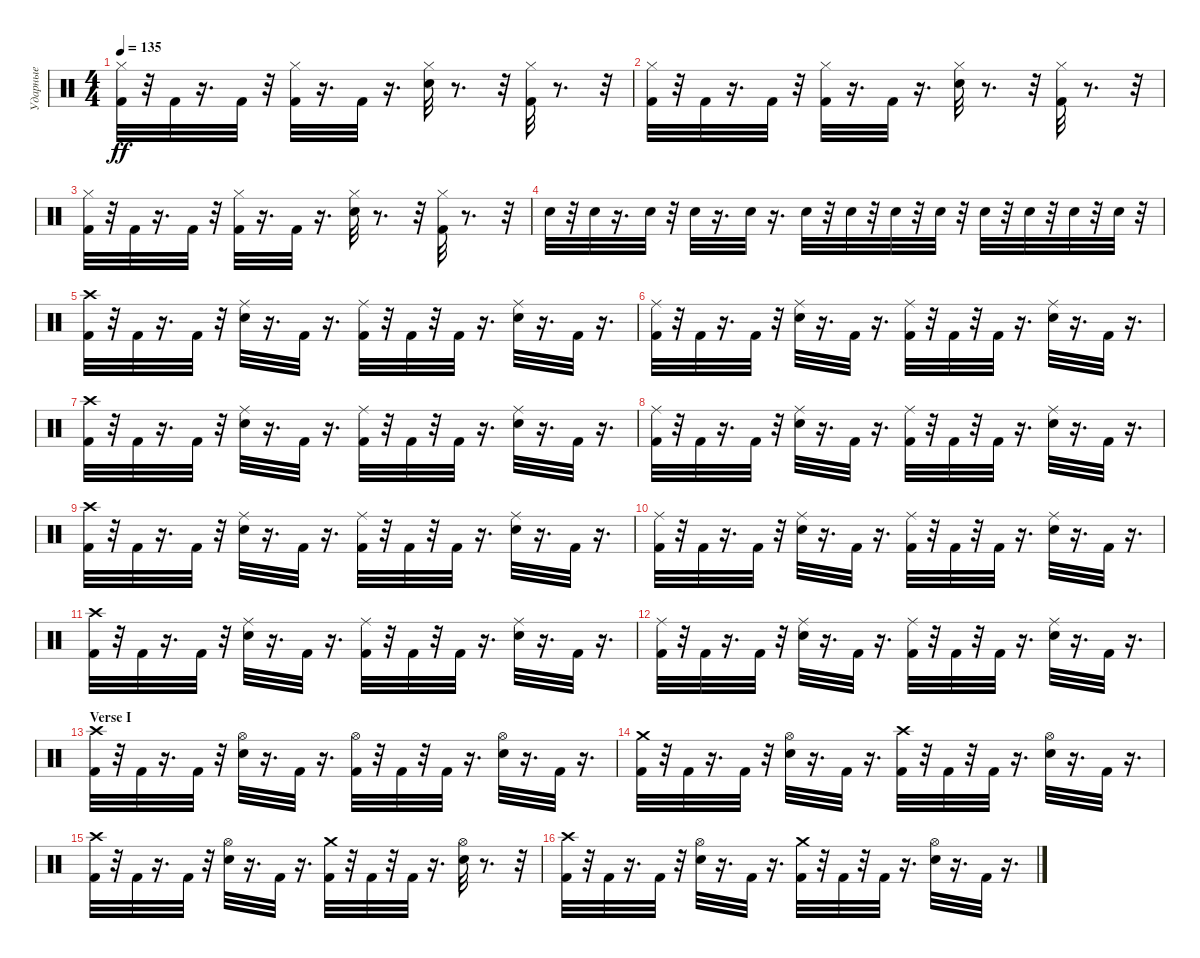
\track ("Ударные" "Ударные") {instrument percussion}
\staff {score}
\articulation defaults
\ts (4 4)
\tempo 135
\clef neutral
\ks c
("Hi-Hat (closed)" "Kick (hit) 2").32{dy ff} r.32 "Kick (hit) 2".32 r.16{d} "Kick (hit) 2".32 r.32 ("Hi-Hat (closed)" "Kick (hit) 2").32 r.16{d} "Kick (hit) 2".32 r.16{d} ("Hi-Hat (closed)" "Electric Snare (hit)").32 r.8{d} r.32 ("Hi-Hat (closed)" "Kick (hit) 2").32 r.8{d} r.32 |
("Hi-Hat (closed)" "Kick (hit) 2").32 r.32 "Kick (hit) 2".32 r.16{d} "Kick (hit) 2".32 r.32 ("Hi-Hat (closed)" "Kick (hit) 2").32 r.16{d} "Kick (hit) 2".32 r.16{d} ("Hi-Hat (closed)" "Electric Snare (hit)").32 r.8{d} r.32 ("Hi-Hat (closed)" "Kick (hit) 2").32 r.8{d} r.32 |
("Hi-Hat (closed)" "Kick (hit) 2").32 r.32 "Kick (hit) 2".32 r.16{d} "Kick (hit) 2".32 r.32 ("Hi-Hat (closed)" "Kick (hit) 2").32 r.16{d} "Kick (hit) 2".32 r.16{d} ("Hi-Hat (closed)" "Electric Snare (hit)").32 r.8{d} r.32 ("Hi-Hat (closed)" "Kick (hit) 2").32 r.8{d} r.32 |
"Electric Snare (hit)".32 r.32 "Electric Snare (hit)".32 r.16{d} "Electric Snare (hit)".32 r.32 "Electric Snare (hit)".32 r.16{d} "Electric Snare (hit)".32 r.16{d} "Electric Snare (hit)".32 r.32 "Electric Snare (hit)".32 r.32 "Electric Snare (hit)".32 r.32 "Electric Snare (hit)".32 r.32 "Electric Snare (hit)".32 r.32 "Electric Snare (hit)".32 r.32 "Electric Snare (hit)".32 r.32 "Electric Snare (hit)".32 r.32 |
("Crash high (hit)" "Kick (hit) 2").32 r.32 "Kick (hit) 2".32 r.16{d} "Kick (hit) 2".32 r.32 ("Ride (middle)" "Electric Snare (hit)").32 r.16{d} "Kick (hit) 2".32 r.16{d} ("Ride (middle)" "Kick (hit) 2").32 r.32 "Kick (hit) 2".32 r.32 "Kick (hit) 2".32 r.16{d} ("Ride (middle)" "Electric Snare (hit)").32 r.16{d} "Kick (hit) 2".32 r.16{d} |
("Ride (middle)" "Kick (hit) 2").32 r.32 "Kick (hit) 2".32 r.16{d} "Kick (hit) 2".32 r.32 ("Ride (middle)" "Electric Snare (hit)").32 r.16{d} "Kick (hit) 2".32 r.16{d} ("Ride (middle)" "Kick (hit) 2").32 r.32 "Kick (hit) 2".32 r.32 "Kick (hit) 2".32 r.16{d} ("Ride (middle)" "Electric Snare (hit)").32 r.16{d} "Kick (hit) 2".32 r.16{d} |
("Crash high (hit)" "Kick (hit) 2").32 r.32 "Kick (hit) 2".32 r.16{d} "Kick (hit) 2".32 r.32 ("Ride (middle)" "Electric Snare (hit)").32 r.16{d} "Kick (hit) 2".32 r.16{d} ("Ride (middle)" "Kick (hit) 2").32 r.32 "Kick (hit) 2".32 r.32 "Kick (hit) 2".32 r.16{d} ("Ride (middle)" "Electric Snare (hit)").32 r.16{d} "Kick (hit) 2".32 r.16{d} |
("Ride (middle)" "Kick (hit) 2").32 r.32 "Kick (hit) 2".32 r.16{d} "Kick (hit) 2".32 r.32 ("Ride (middle)" "Electric Snare (hit)").32 r.16{d} "Kick (hit) 2".32 r.16{d} ("Ride (middle)" "Kick (hit) 2").32 r.32 "Kick (hit) 2".32 r.32 "Kick (hit) 2".32 r.16{d} ("Ride (middle)" "Electric Snare (hit)").32 r.16{d} "Kick (hit) 2".32 r.16{d} |
("Crash high (hit)" "Kick (hit) 2").32 r.32 "Kick (hit) 2".32 r.16{d} "Kick (hit) 2".32 r.32 ("Ride (middle)" "Electric Snare (hit)").32 r.16{d} "Kick (hit) 2".32 r.16{d} ("Ride (middle)" "Kick (hit) 2").32 r.32 "Kick (hit) 2".32 r.32 "Kick (hit) 2".32 r.16{d} ("Ride (middle)" "Electric Snare (hit)").32 r.16{d} "Kick (hit) 2".32 r.16{d} |
("Ride (middle)" "Kick (hit) 2").32 r.32 "Kick (hit) 2".32 r.16{d} "Kick (hit) 2".32 r.32 ("Ride (middle)" "Electric Snare (hit)").32 r.16{d} "Kick (hit) 2".32 r.16{d} ("Ride (middle)" "Kick (hit) 2").32 r.32 "Kick (hit) 2".32 r.32 "Kick (hit) 2".32 r.16{d} ("Ride (middle)" "Electric Snare (hit)").32 r.16{d} "Kick (hit) 2".32 r.16{d} |
("Crash high (hit)" "Kick (hit) 2").32 r.32 "Kick (hit) 2".32 r.16{d} "Kick (hit) 2".32 r.32 ("Ride (middle)" "Electric Snare (hit)").32 r.16{d} "Kick (hit) 2".32 r.16{d} ("Ride (middle)" "Kick (hit) 2").32 r.32 "Kick (hit) 2".32 r.32 "Kick (hit) 2".32 r.16{d} ("Ride (middle)" "Electric Snare (hit)").32 r.16{d} "Kick (hit) 2".32 r.16{d} |
("Ride (middle)" "Kick (hit) 2").32 r.32 "Kick (hit) 2".32 r.16{d} "Kick (hit) 2".32 r.32 ("Ride (middle)" "Electric Snare (hit)").32 r.16{d} "Kick (hit) 2".32 r.16{d} ("Ride (middle)" "Kick (hit) 2").32 r.32 "Kick (hit) 2".32 r.32 "Kick (hit) 2".32 r.16{d} ("Ride (middle)" "Electric Snare (hit)").32 r.16{d} "Kick (hit) 2".32 r.16{d} |
\section ("" "Verse I")
("Crash high (hit)" "Kick (hit) 2").32 r.32 "Kick (hit) 2".32 r.16{d} "Kick (hit) 2".32 r.32 ("Hi-Hat (open)" "Electric Snare (hit)").32 r.16{d} "Kick (hit) 2".32 r.16{d} ("Hi-Hat (open)" "Kick (hit) 2").32 r.32 "Kick (hit) 2".32 r.32 "Kick (hit) 2".32 r.16{d} ("Hi-Hat (open)" "Electric Snare (hit)").32 r.16{d} "Kick (hit) 2".32 r.16{d} |
("Kick (hit) 2" "Crash medium (hit)").32 r.32 "Kick (hit) 2".32 r.16{d} "Kick (hit) 2".32 r.32 ("Hi-Hat (open)" "Electric Snare (hit)").32 r.16{d} "Kick (hit) 2".32 r.16{d} ("Kick (hit) 2" "Crash high (hit)").32 r.32 "Kick (hit) 2".32 r.32 "Kick (hit) 2".32 r.16{d} ("Hi-Hat (open)" "Electric Snare (hit)").32 r.16{d} "Kick (hit) 2".32 r.16{d} |
("Kick (hit) 2" "Crash high (hit)").32 r.32 "Kick (hit) 2".32 r.16{d} "Kick (hit) 2".32 r.32 ("Electric Snare (hit)" "Hi-Hat (open)").32 r.16{d} "Kick (hit) 2".32 r.16{d} ("Kick (hit) 2" "Crash medium (hit)").32 r.32 "Kick (hit) 2".32 r.32 "Kick (hit) 2".32 r.16{d} ("Electric Snare (hit)" "Hi-Hat (open)").32 r.8{d} r.32 |
("Crash high (hit)" "Kick (hit) 2").32 r.32 "Kick (hit) 2".32 r.16{d} "Kick (hit) 2".32 r.32 ("Hi-Hat (open)" "Electric Snare (hit)").32 r.16{d} "Kick (hit) 2".32 r.16{d} ("Crash medium (hit)" "Kick (hit) 2").32 r.32 "Kick (hit) 2".32 r.32 "Kick (hit) 2".32 r.16{d} ("Hi-Hat (open)" "Electric Snare (hit)").32 r.16{d} "Kick (hit) 2".32 r.16{d}
